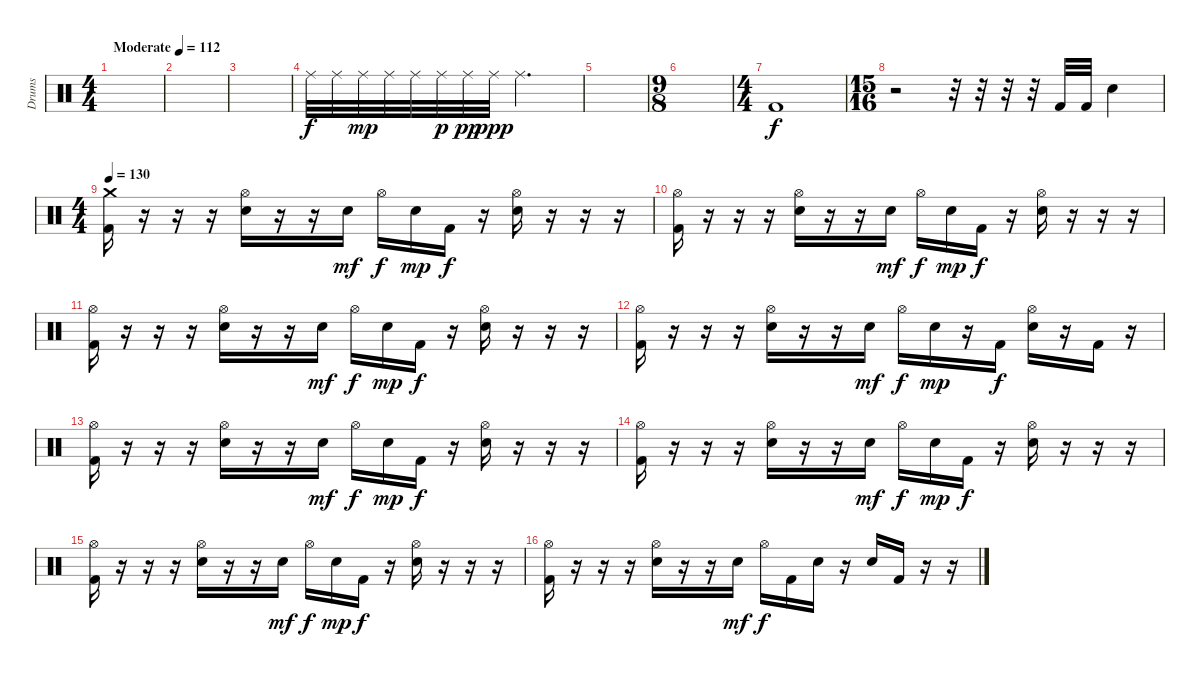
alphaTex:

\track ("Drums" "Drums") {instrument percussion}
\staff {score}
\articulation defaults
\ts (4 4)
\tempo (112 "Moderate")
\clef neutral
\ks c
|
|
|
"Ride (middle)".32 "Ride (middle)".32 "Ride (middle)".32{dy mp} "Ride (middle)".32 "Ride (middle)".32 "Ride (middle)".32{dy p} "Ride (middle)".32{dy pp} "Ride (middle)".32{dy ppp} "Ride (middle)".2{d} |
|
\ts (9 8)
|
\ts (4 4)
"Kick (hit) 2".1{dy f} |
\ts (15 16)
r.2 r.32 r.32 r.32 r.32 "Kick (hit) 2".32 "Kick (hit) 2".32 "Snare (hit) 2".4 |
\ts (4 4)
\tempo 130
("Crash medium (hit)" "Kick (hit) 2").16 r.16 r.16 r.16 ("Snare (hit) 2" "Hi-Hat (open)").16 r.16 r.16 "Snare (hit) 2".16{dy mf} "Hi-Hat (open)".16{dy f} "Snare (hit) 2".16{dy mp} "Kick (hit) 2".16{dy f} r.16 ("Snare (hit) 2" "Hi-Hat (open)").16 r.16 r.16 r.16 |
("Hi-Hat (open)" "Kick (hit) 2").16 r.16 r.16 r.16 ("Snare (hit) 2" "Hi-Hat (open)").16 r.16 r.16 "Snare (hit) 2".16{dy mf} "Hi-Hat (open)".16{dy f} "Snare (hit) 2".16{dy mp} "Kick (hit) 2".16{dy f} r.16 ("Snare (hit) 2" "Hi-Hat (open)").16 r.16 r.16 r.16 |
("Hi-Hat (open)" "Kick (hit) 2").16 r.16 r.16 r.16 ("Snare (hit) 2" "Hi-Hat (open)").16 r.16 r.16 "Snare (hit) 2".16{dy mf} "Hi-Hat (open)".16{dy f} "Snare (hit) 2".16{dy mp} "Kick (hit) 2".16{dy f} r.16 ("Snare (hit) 2" "Hi-Hat (open)").16 r.16 r.16 r.16 |
("Hi-Hat (open)" "Kick (hit) 2").16 r.16 r.16 r.16 ("Snare (hit) 2" "Hi-Hat (open)").16 r.16 r.16 "Snare (hit) 2".16{dy mf} "Hi-Hat (open)".16{dy f} "Snare (hit) 2".16{dy mp} r.16 "Kick (hit) 2".16{dy f} ("Snare (hit) 2" "Hi-Hat (open)").16 r.16 "Kick (hit) 2".16 r.16 |
("Hi-Hat (open)" "Kick (hit) 2").16 r.16 r.16 r.16 ("Snare (hit) 2" "Hi-Hat (open)").16 r.16 r.16 "Snare (hit) 2".16{dy mf} "Hi-Hat (open)".16{dy f} "Snare (hit) 2".16{dy mp} "Kick (hit) 2".16{dy f} r.16 ("Snare (hit) 2" "Hi-Hat (open)").16 r.16 r.16 r.16 |
("Hi-Hat (open)" "Kick (hit) 2").16 r.16 r.16 r.16 ("Snare (hit) 2" "Hi-Hat (open)").16 r.16 r.16 "Snare (hit) 2".16{dy mf} "Hi-Hat (open)".16{dy f} "Snare (hit) 2".16{dy mp} "Kick (hit) 2".16{dy f} r.16 ("Snare (hit) 2" "Hi-Hat (open)").16 r.16 r.16 r.16 |
("Hi-Hat (open)" "Kick (hit) 2").16 r.16 r.16 r.16 ("Snare (hit) 2" "Hi-Hat (open)").16 r.16 r.16 "Snare (hit) 2".16{dy mf} "Hi-Hat (open)".16{dy f} "Snare (hit) 2".16{dy mp} "Kick (hit) 2".16{dy f} r.16 ("Snare (hit) 2" "Hi-Hat (open)").16 r.16 r.16 r.16 |
("Hi-Hat (open)" "Kick (hit) 2").16 r.16 r.16 r.16 ("Snare (hit) 2" "Hi-Hat (open)").16 r.16 r.16 "Snare (hit) 2".16{dy mf} "Hi-Hat (open)".16{dy f} "Kick (hit) 2".16 "Snare (hit) 2".16 r.16 "Snare (hit) 2".16 "Kick (hit) 2".16 r.16 r.16
